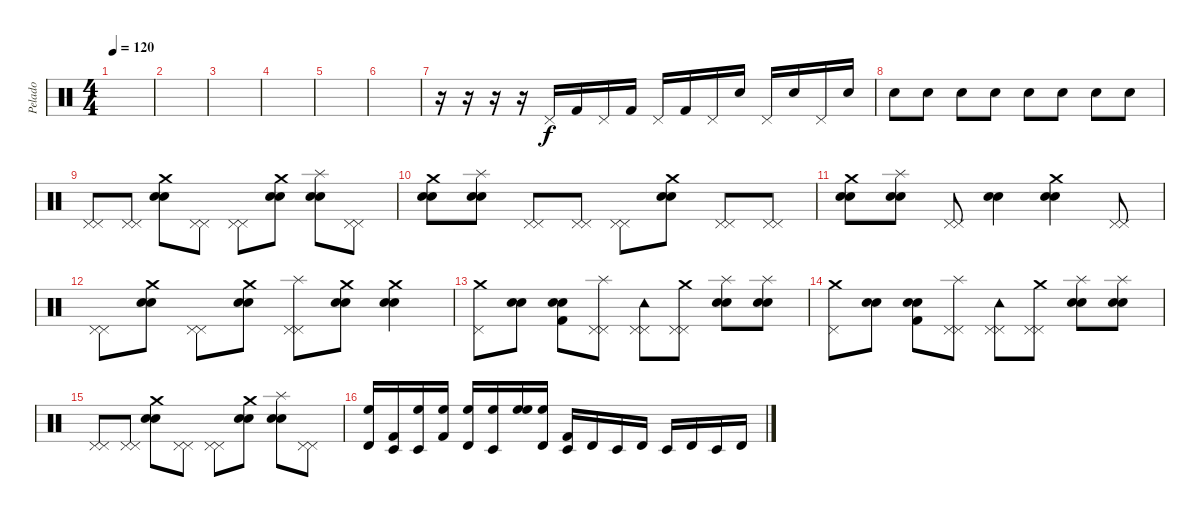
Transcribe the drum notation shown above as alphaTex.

\track ("Pelado" "Pelado") {instrument percussion}
\staff {score}
\articulation defaults
\ts (4 4)
\tempo 120
\clef neutral
\ks c
|
|
|
|
|
|
r.16 r.16 r.16 r.16 "Pedal Hi-Hat (hit)".16 "Kick (hit) 2".16 "Pedal Hi-Hat (hit)".16 "Kick (hit) 2".16 "Pedal Hi-Hat (hit)".16 "Kick (hit) 2".16 "Pedal Hi-Hat (hit)".16 "Snare (hit) 2".16 "Pedal Hi-Hat (hit)".16 "Snare (hit) 2".16 "Pedal Hi-Hat (hit)".16 "Snare (hit) 2".16 |
"Snare (hit) 2".8 "Snare (hit) 2".8 "Snare (hit) 2".8 "Snare (hit) 2".8 "Snare (hit) 2".8 "Snare (hit) 2".8 "Snare (hit) 2".8 "Snare (hit) 2".8 |
("Pedal Hi-Hat (hit)" "Pedal Hi-Hat (hit)").8 ("Pedal Hi-Hat (hit)" "Pedal Hi-Hat (hit)").8 ("Crash medium (hit)" "Snare (hit) 2" "Snare (hit) 2").8 ("Pedal Hi-Hat (hit)" "Pedal Hi-Hat (hit)").8 ("Pedal Hi-Hat (hit)" "Pedal Hi-Hat (hit)").8 ("Crash medium (hit)" "Snare (hit) 2" "Snare (hit) 2").8 ("Splash (hit)" "Snare (hit) 2" "Snare (hit) 2").8 ("Pedal Hi-Hat (hit)" "Pedal Hi-Hat (hit)").8 |
("Crash medium (hit)" "Snare (hit) 2" "Snare (hit) 2").8 ("Splash (hit)" "Snare (hit) 2" "Snare (hit) 2").8 ("Pedal Hi-Hat (hit)" "Pedal Hi-Hat (hit)").8 ("Pedal Hi-Hat (hit)" "Pedal Hi-Hat (hit)").8 ("Pedal Hi-Hat (hit)" "Pedal Hi-Hat (hit)").8 ("Crash medium (hit)" "Snare (hit) 2" "Snare (hit) 2").8 ("Pedal Hi-Hat (hit)" "Pedal Hi-Hat (hit)").8 ("Pedal Hi-Hat (hit)" "Pedal Hi-Hat (hit)").8 |
("Crash medium (hit)" "Snare (hit) 2" "Snare (hit) 2").8 ("Splash (hit)" "Snare (hit) 2" "Snare (hit) 2").8 ("Pedal Hi-Hat (hit)" "Pedal Hi-Hat (hit)").8 ("Snare (hit) 2" "Snare (hit) 2").4 ("Crash medium (hit)" "Snare (hit) 2" "Snare (hit) 2").4 ("Pedal Hi-Hat (hit)" "Pedal Hi-Hat (hit)").8 |
("Pedal Hi-Hat (hit)" "Pedal Hi-Hat (hit)").8 ("Crash medium (hit)" "Snare (hit) 2" "Snare (hit) 2").8 ("Pedal Hi-Hat (hit)" "Pedal Hi-Hat (hit)").8 ("Crash medium (hit)" "Snare (hit) 2" "Snare (hit) 2").8 ("Splash (hit)" "Pedal Hi-Hat (hit)" "Pedal Hi-Hat (hit)").8 ("Crash medium (hit)" "Snare (hit) 2" "Snare (hit) 2").8 ("Crash medium (hit)" "Snare (hit) 2" "Snare (hit) 2").4 |
("Crash medium (hit)" "Pedal Hi-Hat (hit)").8 ("Snare (hit) 2" "Snare (hit) 2").8 ("Kick (hit) 2" "Snare (hit) 2" "Snare (hit) 2").8 ("Splash (hit)" "Pedal Hi-Hat (hit)" "Pedal Hi-Hat (hit)").8 ("Tambourine (hit)" "Pedal Hi-Hat (hit)" "Pedal Hi-Hat (hit)").8 ("Crash medium (hit)" "Pedal Hi-Hat (hit)" "Pedal Hi-Hat (hit)").8 ("Splash (hit)" "Snare (hit) 2" "Snare (hit) 2").8 ("Splash (hit)" "Electric Snare (hit)" "Electric Snare (hit)").8 |
("Crash medium (hit)" "Pedal Hi-Hat (hit)").8 ("Snare (hit) 2" "Snare (hit) 2").8 ("Kick (hit) 2" "Snare (hit) 2" "Snare (hit) 2").8 ("Splash (hit)" "Pedal Hi-Hat (hit)" "Pedal Hi-Hat (hit)").8 ("Tambourine (hit)" "Pedal Hi-Hat (hit)" "Pedal Hi-Hat (hit)").8 ("Crash medium (hit)" "Pedal Hi-Hat (hit)" "Pedal Hi-Hat (hit)").8 ("Splash (hit)" "Snare (hit) 2" "Snare (hit) 2").8 ("Splash (hit)" "Electric Snare (hit)" "Electric Snare (hit)").8 |
("Pedal Hi-Hat (hit)" "Pedal Hi-Hat (hit)").8 ("Pedal Hi-Hat (hit)" "Pedal Hi-Hat (hit)").8 ("Crash medium (hit)" "Snare (hit) 2" "Snare (hit) 2").8 ("Pedal Hi-Hat (hit)" "Pedal Hi-Hat (hit)").8 ("Pedal Hi-Hat (hit)" "Pedal Hi-Hat (hit)").8 ("Crash medium (hit)" "Snare (hit) 2" "Snare (hit) 2").8 ("Splash (hit)" "Snare (hit) 2" "Snare (hit) 2").8 ("Pedal Hi-Hat (hit)" "Pedal Hi-Hat (hit)").8 |
("Timbale high (hit)" "High Floor Tom (hit)").16 ("Kick (hit) 2" "Timbale low (hit)").16 ("Timbale low (hit)" "High Floor Tom (hit)").16 ("Kick (hit) 2" "High Floor Tom (hit)").16 ("Timbale high (hit)" "High Floor Tom (hit)").16 ("Timbale low (hit)" "High Floor Tom (hit)").16 ("High Floor Tom (hit)" "High Floor Tom (hit)").16 ("Timbale high (hit)" "High Floor Tom (hit)").16 ("Timbale low (hit)" "Kick (hit) 2").16 "Timbale high (hit)".16 "Timbale low (hit)".16 "Timbale high (hit)".16 "Timbale low (hit)".16 "Timbale high (hit)".16 "Timbale low (hit)".16 "Timbale high (hit)".16
